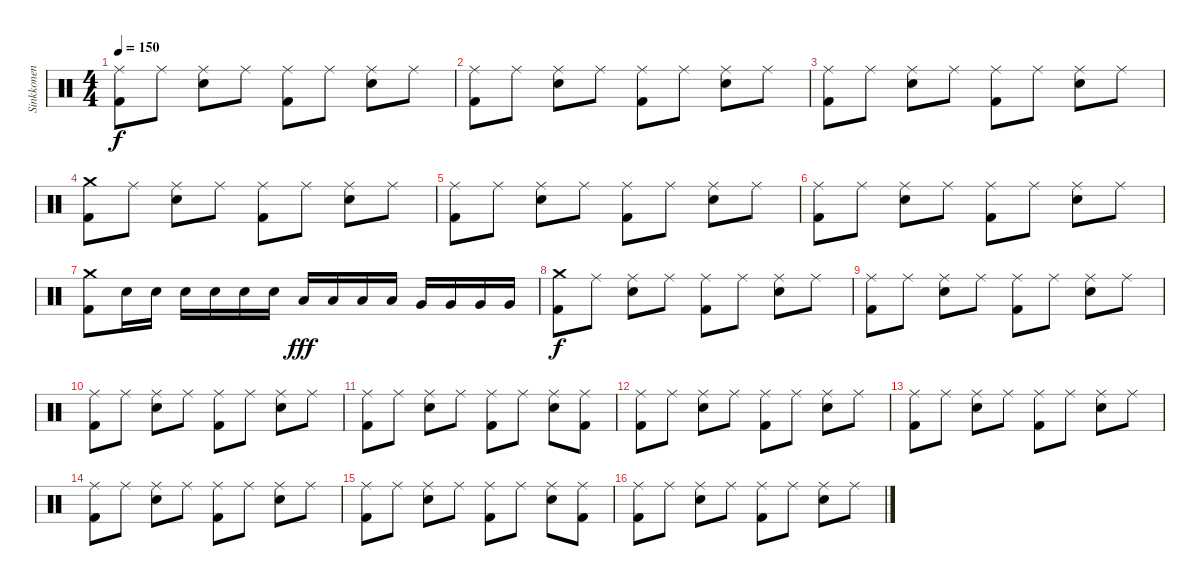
\track ("Sinkkonen" "Sinkkonen") {instrument percussion}
\staff {score}
\articulation defaults
\ts (4 4)
\tempo 150
\clef neutral
\ks c
("Kick (hit) 2" "Ride (middle)").8{dy f} "Ride (middle)".8 ("Ride (middle)" "Snare (hit) 2").8 "Ride (middle)".8 ("Kick (hit) 2" "Ride (middle)").8 "Ride (middle)".8 ("Ride (middle)" "Snare (hit) 2").8 "Ride (middle)".8 |
("Kick (hit) 2" "Ride (middle)").8 "Ride (middle)".8 ("Ride (middle)" "Snare (hit) 2").8 "Ride (middle)".8 ("Kick (hit) 2" "Ride (middle)").8 "Ride (middle)".8 ("Ride (middle)" "Snare (hit) 2").8 "Ride (middle)".8 |
("Kick (hit) 2" "Ride (middle)").8 "Ride (middle)".8 ("Ride (middle)" "Snare (hit) 2").8 "Ride (middle)".8 ("Kick (hit) 2" "Ride (middle)").8 "Ride (middle)".8 ("Ride (middle)" "Snare (hit) 2").8 "Ride (middle)".8 |
("Kick (hit) 2" "Crash medium (hit)").8 "Ride (middle)".8 ("Ride (middle)" "Snare (hit) 2").8 "Ride (middle)".8 ("Kick (hit) 2" "Ride (middle)").8 "Ride (middle)".8 ("Ride (middle)" "Snare (hit) 2").8 "Ride (middle)".8 |
("Kick (hit) 2" "Ride (middle)").8 "Ride (middle)".8 ("Ride (middle)" "Snare (hit) 2").8 "Ride (middle)".8 ("Kick (hit) 2" "Ride (middle)").8 "Ride (middle)".8 ("Ride (middle)" "Snare (hit) 2").8 "Ride (middle)".8 |
("Kick (hit) 2" "Ride (middle)").8 "Ride (middle)".8 ("Ride (middle)" "Snare (hit) 2").8 "Ride (middle)".8 ("Kick (hit) 2" "Ride (middle)").8 "Ride (middle)".8 ("Ride (middle)" "Snare (hit) 2").8 "Ride (middle)".8 |
("Kick (hit) 2" "Crash medium (hit)").8 "Snare (hit) 2".16 "Snare (hit) 2".16 "Snare (hit) 2".16 "Snare (hit) 2".16 "Snare (hit) 2".16 "Snare (hit) 2".16 "Low Tom (hit)".16{dy fff} "Low Tom (hit)".16 "Low Tom (hit)".16 "Low Tom (hit)".16 "Very Low Tom (hit)".16 "Very Low Tom (hit)".16 "Very Low Tom (hit)".16 "Very Low Tom (hit)".16 |
("Kick (hit) 2" "Crash medium (hit)").8{dy f} "Ride (middle)".8 ("Ride (middle)" "Snare (hit) 2").8 "Ride (middle)".8 ("Kick (hit) 2" "Ride (middle)").8 "Ride (middle)".8 ("Ride (middle)" "Snare (hit) 2").8 "Ride (middle)".8 |
("Kick (hit) 2" "Ride (middle)").8 "Ride (middle)".8 ("Ride (middle)" "Snare (hit) 2").8 "Ride (middle)".8 ("Kick (hit) 2" "Ride (middle)").8 "Ride (middle)".8 ("Ride (middle)" "Snare (hit) 2").8 "Ride (middle)".8 |
("Kick (hit) 2" "Ride (middle)").8 "Ride (middle)".8 ("Ride (middle)" "Snare (hit) 2").8 "Ride (middle)".8 ("Kick (hit) 2" "Ride (middle)").8 "Ride (middle)".8 ("Ride (middle)" "Snare (hit) 2").8 "Ride (middle)".8 |
("Kick (hit) 2" "Ride (middle)").8 "Ride (middle)".8 ("Ride (middle)" "Snare (hit) 2").8 "Ride (middle)".8 ("Kick (hit) 2" "Ride (middle)").8 "Ride (middle)".8 ("Ride (middle)" "Snare (hit) 2").8 ("Kick (hit) 2" "Ride (middle)").8 |
("Kick (hit) 2" "Ride (middle)").8 "Ride (middle)".8 ("Ride (middle)" "Snare (hit) 2").8 "Ride (middle)".8 ("Kick (hit) 2" "Ride (middle)").8 "Ride (middle)".8 ("Ride (middle)" "Snare (hit) 2").8 "Ride (middle)".8 |
("Kick (hit) 2" "Ride (middle)").8 "Ride (middle)".8 ("Ride (middle)" "Snare (hit) 2").8 "Ride (middle)".8 ("Kick (hit) 2" "Ride (middle)").8 "Ride (middle)".8 ("Ride (middle)" "Snare (hit) 2").8 "Ride (middle)".8 |
("Kick (hit) 2" "Ride (middle)").8 "Ride (middle)".8 ("Ride (middle)" "Snare (hit) 2").8 "Ride (middle)".8 ("Kick (hit) 2" "Ride (middle)").8 "Ride (middle)".8 ("Ride (middle)" "Snare (hit) 2").8 "Ride (middle)".8 |
("Kick (hit) 2" "Ride (middle)").8 "Ride (middle)".8 ("Ride (middle)" "Snare (hit) 2").8 "Ride (middle)".8 ("Kick (hit) 2" "Ride (middle)").8 "Ride (middle)".8 ("Ride (middle)" "Snare (hit) 2").8 ("Kick (hit) 2" "Ride (middle)").8 |
("Kick (hit) 2" "Ride (middle)").8 "Ride (middle)".8 ("Ride (middle)" "Snare (hit) 2").8 "Ride (middle)".8 ("Kick (hit) 2" "Ride (middle)").8 "Ride (middle)".8 ("Ride (middle)" "Snare (hit) 2").8 "Ride (middle)".8
